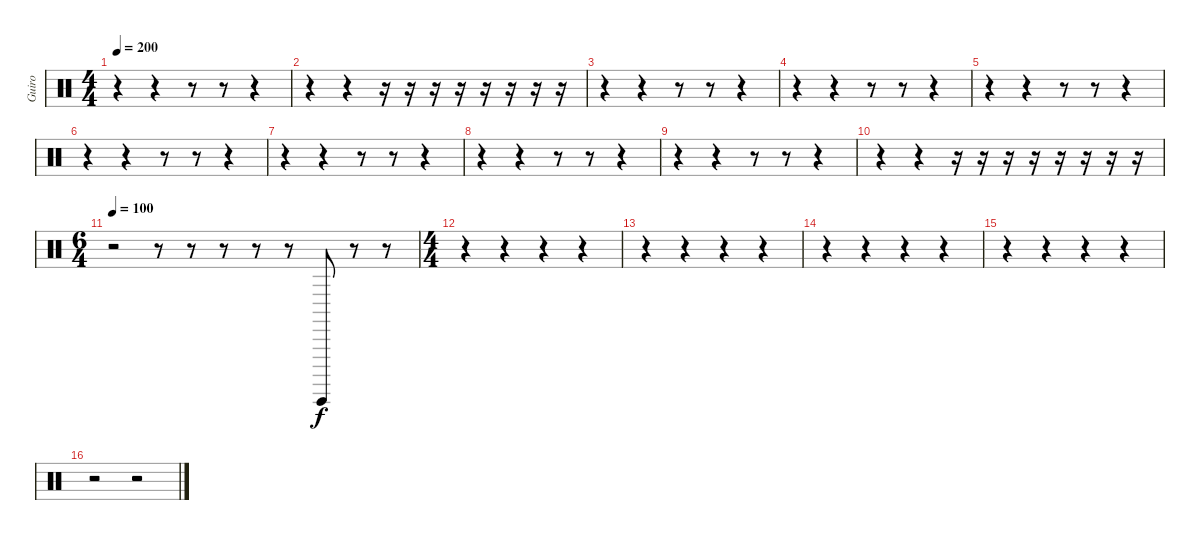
\track ("Guiro" "Guiro") {instrument percussion}
\staff {score}
\articulation defaults
\ts (4 4)
\tempo 200
\clef neutral
\ks c
r.4{dy f} r.4 r.8 r.8 r.4 |
r.4 r.4 r.16 r.16 r.16 r.16 r.16 r.16 r.16 r.16 |
r.4 r.4 r.8 r.8 r.4 |
r.4 r.4 r.8 r.8 r.4 |
r.4 r.4 r.8 r.8 r.4 |
r.4 r.4 r.8 r.8 r.4 |
r.4 r.4 r.8 r.8 r.4 |
r.4 r.4 r.8 r.8 r.4 |
r.4 r.4 r.8 r.8 r.4 |
r.4 r.4 r.16 r.16 r.16 r.16 r.16 r.16 r.16 r.16 |
\ts (6 4)
\tempo 100
r.2 r.8 r.8 r.8 r.8 r.8 "Guiro (hit)".8 r.8 r.8 |
\ts (4 4)
r.4 r.4 r.4 r.4 |
r.4 r.4 r.4 r.4 |
r.4 r.4 r.4 r.4 |
r.4 r.4 r.4 r.4 |
r.2 r.2
